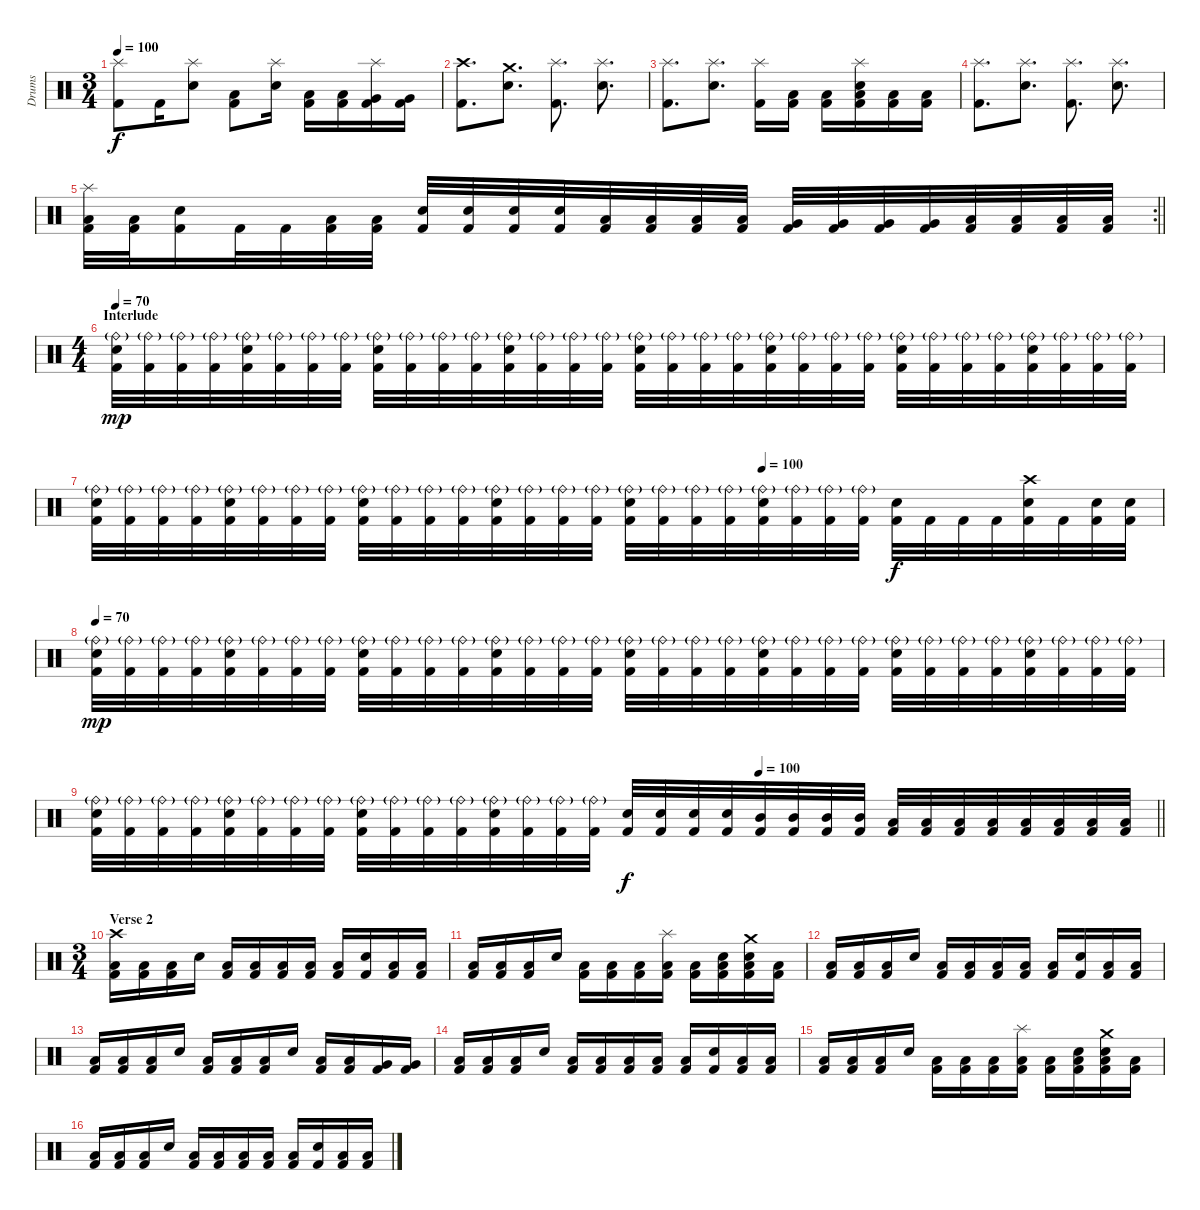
\track ("Drums" "Drums") {instrument percussion}
\staff {score}
\articulation defaults
\ts (3 4)
\tempo 100
\clef neutral
\ks c
("Splash (hit)" "Kick (hit) 2").8{dy f} "Kick (hit) 2".16 ("Splash (hit)" "Electric Snare (hit)").8 ("Low Floor Tom (hit)" "Kick (hit) 2").8 ("Splash (hit)" "Electric Snare (hit)").16 ("Low Tom (hit)" "Kick (hit) 2").16 ("Low Tom (hit)" "Kick (hit) 2").16 ("Splash (hit)" "Very Low Tom (hit)" "Kick (hit) 2").16 ("Very Low Tom (hit)" "Kick (hit) 2").16 |
("Crash high (hit)" "Kick (hit) 2").8{d} ("Crash medium (hit)" "Electric Snare (hit)").8{d} ("Splash (hit)" "Kick (hit) 2").8{d} ("Splash (hit)" "Electric Snare (hit)").8{d} |
("Splash (hit)" "Kick (hit) 2").8{d} ("Splash (hit)" "Electric Snare (hit)").8{d} ("Splash (hit)" "Kick (hit) 2").16 ("Low Floor Tom (hit)" "Kick (hit) 2").16 ("Low Floor Tom (hit)" "Kick (hit) 2").16 ("Splash (hit)" "Low Floor Tom (hit)" "Electric Snare (hit)" "Kick (hit) 2").16 ("Low Floor Tom (hit)" "Kick (hit) 2").16 ("Low Floor Tom (hit)" "Kick (hit) 2").16 |
("Splash (hit)" "Kick (hit) 2").8{d} ("Splash (hit)" "Electric Snare (hit)").8{d} ("Splash (hit)" "Kick (hit) 2").8{d} ("Splash (hit)" "Electric Snare (hit)").8{d} |
\rc 2
\barLineRight lightlight
("Splash (hit)" "Low Floor Tom (hit)" "Kick (hit) 2").32 ("Low Floor Tom (hit)" "Kick (hit) 2").32 ("Electric Snare (hit)" "Kick (hit) 2").16 "Kick (hit) 2".32 "Kick (hit) 2".32 ("Low Floor Tom (hit)" "Kick (hit) 2").32 ("Low Floor Tom (hit)" "Kick (hit) 2").32 ("Electric Snare (hit)" "Kick (hit) 2").32 ("Electric Snare (hit)" "Kick (hit) 2").32 ("Electric Snare (hit)" "Kick (hit) 2").32 ("Electric Snare (hit)" "Kick (hit) 2").32 ("Low Tom (hit)" "Kick (hit) 2").32 ("Low Tom (hit)" "Kick (hit) 2").32 ("Low Tom (hit)" "Kick (hit) 2").32 ("Low Tom (hit)" "Kick (hit) 2").32 ("Very Low Tom (hit)" "Kick (hit) 2").32 ("Very Low Tom (hit)" "Kick (hit) 2").32 ("Very Low Tom (hit)" "Kick (hit) 2").32 ("Very Low Tom (hit)" "Kick (hit) 2").32 ("Low Floor Tom (hit)" "Kick (hit) 2").32 ("Low Floor Tom (hit)" "Kick (hit) 2").32 ("Low Floor Tom (hit)" "Kick (hit) 2").32 ("Low Floor Tom (hit)" "Kick (hit) 2").32 |
\ts (4 4)
\section ("" "Interlude")
\tempo 70
("Ride (bell)"{g} "Electric Snare (hit)" "Kick (hit) 2").32{dy mp} ("Ride (bell)"{g} "Kick (hit) 2").32 ("Ride (bell)"{g} "Kick (hit) 2").32 ("Ride (bell)"{g} "Kick (hit) 2").32 ("Ride (bell)"{g} "Electric Snare (hit)" "Kick (hit) 2").32 ("Ride (bell)"{g} "Kick (hit) 2").32 ("Ride (bell)"{g} "Kick (hit) 2").32 ("Ride (bell)"{g} "Kick (hit) 2").32 ("Ride (bell)"{g} "Electric Snare (hit)" "Kick (hit) 2").32 ("Ride (bell)"{g} "Kick (hit) 2").32 ("Ride (bell)"{g} "Kick (hit) 2").32 ("Ride (bell)"{g} "Kick (hit) 2").32 ("Ride (bell)"{g} "Electric Snare (hit)" "Kick (hit) 2").32 ("Ride (bell)"{g} "Kick (hit) 2").32 ("Ride (bell)"{g} "Kick (hit) 2").32 ("Ride (bell)"{g} "Kick (hit) 2").32 ("Ride (bell)"{g} "Electric Snare (hit)" "Kick (hit) 2").32 ("Ride (bell)"{g} "Kick (hit) 2").32 ("Ride (bell)"{g} "Kick (hit) 2").32 ("Ride (bell)"{g} "Kick (hit) 2").32 ("Ride (bell)"{g} "Electric Snare (hit)" "Kick (hit) 2").32 ("Ride (bell)"{g} "Kick (hit) 2").32 ("Ride (bell)"{g} "Kick (hit) 2").32 ("Ride (bell)"{g} "Kick (hit) 2").32 ("Ride (bell)"{g} "Electric Snare (hit)" "Kick (hit) 2").32 ("Ride (bell)"{g} "Kick (hit) 2").32 ("Ride (bell)"{g} "Kick (hit) 2").32 ("Ride (bell)"{g} "Kick (hit) 2").32 ("Ride (bell)"{g} "Electric Snare (hit)" "Kick (hit) 2").32 ("Ride (bell)"{g} "Kick (hit) 2").32 ("Ride (bell)"{g} "Kick (hit) 2").32 ("Ride (bell)"{g} "Kick (hit) 2").32 |
\tempo (100 0.625)
("Ride (bell)"{g} "Electric Snare (hit)" "Kick (hit) 2").32 ("Ride (bell)"{g} "Kick (hit) 2").32 ("Ride (bell)"{g} "Kick (hit) 2").32 ("Ride (bell)"{g} "Kick (hit) 2").32 ("Ride (bell)"{g} "Electric Snare (hit)" "Kick (hit) 2").32 ("Ride (bell)"{g} "Kick (hit) 2").32 ("Ride (bell)"{g} "Kick (hit) 2").32 ("Ride (bell)"{g} "Kick (hit) 2").32 ("Ride (bell)"{g} "Electric Snare (hit)" "Kick (hit) 2").32 ("Ride (bell)"{g} "Kick (hit) 2").32 ("Ride (bell)"{g} "Kick (hit) 2").32 ("Ride (bell)"{g} "Kick (hit) 2").32 ("Ride (bell)"{g} "Electric Snare (hit)" "Kick (hit) 2").32 ("Ride (bell)"{g} "Kick (hit) 2").32 ("Ride (bell)"{g} "Kick (hit) 2").32 ("Ride (bell)"{g} "Kick (hit) 2").32 ("Ride (bell)"{g} "Electric Snare (hit)" "Kick (hit) 2").32 ("Ride (bell)"{g} "Kick (hit) 2").32 ("Ride (bell)"{g} "Kick (hit) 2").32 ("Ride (bell)"{g} "Kick (hit) 2").32 ("Ride (bell)"{g} "Electric Snare (hit)" "Kick (hit) 2").32 ("Ride (bell)"{g} "Kick (hit) 2").32 ("Ride (bell)"{g} "Kick (hit) 2").32 ("Ride (bell)"{g} "Kick (hit) 2").32 ("Electric Snare (hit)" "Kick (hit) 2").32{dy f} "Kick (hit) 2".32 "Kick (hit) 2".32 "Kick (hit) 2".32 ("Crash high (hit)" "Electric Snare (hit)" "Kick (hit) 2").32 "Kick (hit) 2".32 ("Electric Snare (hit)" "Kick (hit) 2").32 ("Electric Snare (hit)" "Kick (hit) 2").32 |
\tempo 70
("Ride (bell)"{g} "Electric Snare (hit)" "Kick (hit) 2").32{dy mp} ("Ride (bell)"{g} "Kick (hit) 2").32 ("Ride (bell)"{g} "Kick (hit) 2").32 ("Ride (bell)"{g} "Kick (hit) 2").32 ("Ride (bell)"{g} "Electric Snare (hit)" "Kick (hit) 2").32 ("Ride (bell)"{g} "Kick (hit) 2").32 ("Ride (bell)"{g} "Kick (hit) 2").32 ("Ride (bell)"{g} "Kick (hit) 2").32 ("Ride (bell)"{g} "Electric Snare (hit)" "Kick (hit) 2").32 ("Ride (bell)"{g} "Kick (hit) 2").32 ("Ride (bell)"{g} "Kick (hit) 2").32 ("Ride (bell)"{g} "Kick (hit) 2").32 ("Ride (bell)"{g} "Electric Snare (hit)" "Kick (hit) 2").32 ("Ride (bell)"{g} "Kick (hit) 2").32 ("Ride (bell)"{g} "Kick (hit) 2").32 ("Ride (bell)"{g} "Kick (hit) 2").32 ("Ride (bell)"{g} "Electric Snare (hit)" "Kick (hit) 2").32 ("Ride (bell)"{g} "Kick (hit) 2").32 ("Ride (bell)"{g} "Kick (hit) 2").32 ("Ride (bell)"{g} "Kick (hit) 2").32 ("Ride (bell)"{g} "Electric Snare (hit)" "Kick (hit) 2").32 ("Ride (bell)"{g} "Kick (hit) 2").32 ("Ride (bell)"{g} "Kick (hit) 2").32 ("Ride (bell)"{g} "Kick (hit) 2").32 ("Ride (bell)"{g} "Electric Snare (hit)" "Kick (hit) 2").32 ("Ride (bell)"{g} "Kick (hit) 2").32 ("Ride (bell)"{g} "Kick (hit) 2").32 ("Ride (bell)"{g} "Kick (hit) 2").32 ("Ride (bell)"{g} "Electric Snare (hit)" "Kick (hit) 2").32 ("Ride (bell)"{g} "Kick (hit) 2").32 ("Ride (bell)"{g} "Kick (hit) 2").32 ("Ride (bell)"{g} "Kick (hit) 2").32 |
\tempo (100 0.625)
\barLineRight lightlight
("Ride (bell)"{g} "Electric Snare (hit)" "Kick (hit) 2").32 ("Ride (bell)"{g} "Kick (hit) 2").32 ("Ride (bell)"{g} "Kick (hit) 2").32 ("Ride (bell)"{g} "Kick (hit) 2").32 ("Ride (bell)"{g} "Electric Snare (hit)" "Kick (hit) 2").32 ("Ride (bell)"{g} "Kick (hit) 2").32 ("Ride (bell)"{g} "Kick (hit) 2").32 ("Ride (bell)"{g} "Kick (hit) 2").32 ("Ride (bell)"{g} "Electric Snare (hit)" "Kick (hit) 2").32 ("Ride (bell)"{g} "Kick (hit) 2").32 ("Ride (bell)"{g} "Kick (hit) 2").32 ("Ride (bell)"{g} "Kick (hit) 2").32 ("Ride (bell)"{g} "Electric Snare (hit)" "Kick (hit) 2").32 ("Ride (bell)"{g} "Kick (hit) 2").32 ("Ride (bell)"{g} "Kick (hit) 2").32 ("Ride (bell)"{g} "Kick (hit) 2").32 ("Electric Snare (hit)" "Kick (hit) 2").32{dy f} ("Electric Snare (hit)" "Kick (hit) 2").32 ("Electric Snare (hit)" "Kick (hit) 2").32 ("Electric Snare (hit)" "Kick (hit) 2").32 ("Mid Tom (hit)" "Kick (hit) 2").32 ("Mid Tom (hit)" "Kick (hit) 2").32 ("Mid Tom (hit)" "Kick (hit) 2").32 ("Mid Tom (hit)" "Kick (hit) 2").32 ("Low Tom (hit)" "Kick (hit) 2").32 ("Low Tom (hit)" "Kick (hit) 2").32 ("Low Tom (hit)" "Kick (hit) 2").32 ("Low Tom (hit)" "Kick (hit) 2").32 ("Low Floor Tom (hit)" "Kick (hit) 2").32 ("Low Floor Tom (hit)" "Kick (hit) 2").32 ("Low Floor Tom (hit)" "Kick (hit) 2").32 ("Low Floor Tom (hit)" "Kick (hit) 2").32 |
\ts (3 4)
\section ("" "Verse 2")
("Crash high (hit)" "Low Floor Tom (hit)" "Kick (hit) 2").16 ("Low Floor Tom (hit)" "Kick (hit) 2").16 ("Low Floor Tom (hit)" "Kick (hit) 2").16 "Electric Snare (hit)".16 ("Low Floor Tom (hit)" "Kick (hit) 2").16 ("Low Floor Tom (hit)" "Kick (hit) 2").16 ("Low Floor Tom (hit)" "Kick (hit) 2").16 ("Low Floor Tom (hit)" "Kick (hit) 2").16 ("Low Floor Tom (hit)" "Kick (hit) 2").16 ("Electric Snare (hit)" "Kick (hit) 2").16 ("Low Floor Tom (hit)" "Kick (hit) 2").16 ("Low Floor Tom (hit)" "Kick (hit) 2").16 |
("Low Floor Tom (hit)" "Kick (hit) 2").16 ("Low Floor Tom (hit)" "Kick (hit) 2").16 ("Low Floor Tom (hit)" "Kick (hit) 2").16 "Electric Snare (hit)".16 ("Low Floor Tom (hit)" "Kick (hit) 2").16 ("Low Floor Tom (hit)" "Kick (hit) 2").16 ("Low Floor Tom (hit)" "Kick (hit) 2").16 ("Splash (hit)" "Low Floor Tom (hit)" "Kick (hit) 2").16 ("Low Floor Tom (hit)" "Kick (hit) 2").16 ("Low Floor Tom (hit)" "Electric Snare (hit)" "Kick (hit) 2").16 ("Crash medium (hit)" "Low Floor Tom (hit)" "Electric Snare (hit)" "Kick (hit) 2").16 ("Low Floor Tom (hit)" "Kick (hit) 2").16 |
("Low Floor Tom (hit)" "Kick (hit) 2").16 ("Low Floor Tom (hit)" "Kick (hit) 2").16 ("Low Floor Tom (hit)" "Kick (hit) 2").16 "Electric Snare (hit)".16 ("Low Floor Tom (hit)" "Kick (hit) 2").16 ("Low Floor Tom (hit)" "Kick (hit) 2").16 ("Low Floor Tom (hit)" "Kick (hit) 2").16 ("Low Floor Tom (hit)" "Kick (hit) 2").16 ("Low Floor Tom (hit)" "Kick (hit) 2").16 ("Electric Snare (hit)" "Kick (hit) 2").16 ("Low Floor Tom (hit)" "Kick (hit) 2").16 ("Low Floor Tom (hit)" "Kick (hit) 2").16 |
("Low Floor Tom (hit)" "Kick (hit) 2").16 ("Low Floor Tom (hit)" "Kick (hit) 2").16 ("Low Floor Tom (hit)" "Kick (hit) 2").16 "Electric Snare (hit)".16 ("Low Floor Tom (hit)" "Kick (hit) 2").16 ("Low Floor Tom (hit)" "Kick (hit) 2").16 ("Low Floor Tom (hit)" "Kick (hit) 2").16 "Electric Snare (hit)".16 ("Low Tom (hit)" "Kick (hit) 2").16 ("Low Tom (hit)" "Kick (hit) 2").16 ("Very Low Tom (hit)" "Kick (hit) 2").16 ("Very Low Tom (hit)" "Kick (hit) 2").16 |
("Low Floor Tom (hit)" "Kick (hit) 2").16 ("Low Floor Tom (hit)" "Kick (hit) 2").16 ("Low Floor Tom (hit)" "Kick (hit) 2").16 "Electric Snare (hit)".16 ("Low Floor Tom (hit)" "Kick (hit) 2").16 ("Low Floor Tom (hit)" "Kick (hit) 2").16 ("Low Floor Tom (hit)" "Kick (hit) 2").16 ("Low Floor Tom (hit)" "Kick (hit) 2").16 ("Low Floor Tom (hit)" "Kick (hit) 2").16 ("Electric Snare (hit)" "Kick (hit) 2").16 ("Low Floor Tom (hit)" "Kick (hit) 2").16 ("Low Floor Tom (hit)" "Kick (hit) 2").16 |
("Low Floor Tom (hit)" "Kick (hit) 2").16 ("Low Floor Tom (hit)" "Kick (hit) 2").16 ("Low Floor Tom (hit)" "Kick (hit) 2").16 "Electric Snare (hit)".16 ("Low Floor Tom (hit)" "Kick (hit) 2").16 ("Low Floor Tom (hit)" "Kick (hit) 2").16 ("Low Floor Tom (hit)" "Kick (hit) 2").16 ("Splash (hit)" "Low Floor Tom (hit)" "Kick (hit) 2").16 ("Low Floor Tom (hit)" "Kick (hit) 2").16 ("Low Floor Tom (hit)" "Electric Snare (hit)" "Kick (hit) 2").16 ("Crash medium (hit)" "Low Floor Tom (hit)" "Electric Snare (hit)" "Kick (hit) 2").16 ("Low Floor Tom (hit)" "Kick (hit) 2").16 |
("Low Floor Tom (hit)" "Kick (hit) 2").16 ("Low Floor Tom (hit)" "Kick (hit) 2").16 ("Low Floor Tom (hit)" "Kick (hit) 2").16 "Electric Snare (hit)".16 ("Low Floor Tom (hit)" "Kick (hit) 2").16 ("Low Floor Tom (hit)" "Kick (hit) 2").16 ("Low Floor Tom (hit)" "Kick (hit) 2").16 ("Low Floor Tom (hit)" "Kick (hit) 2").16 ("Low Floor Tom (hit)" "Kick (hit) 2").16 ("Electric Snare (hit)" "Kick (hit) 2").16 ("Low Floor Tom (hit)" "Kick (hit) 2").16 ("Low Floor Tom (hit)" "Kick (hit) 2").16
